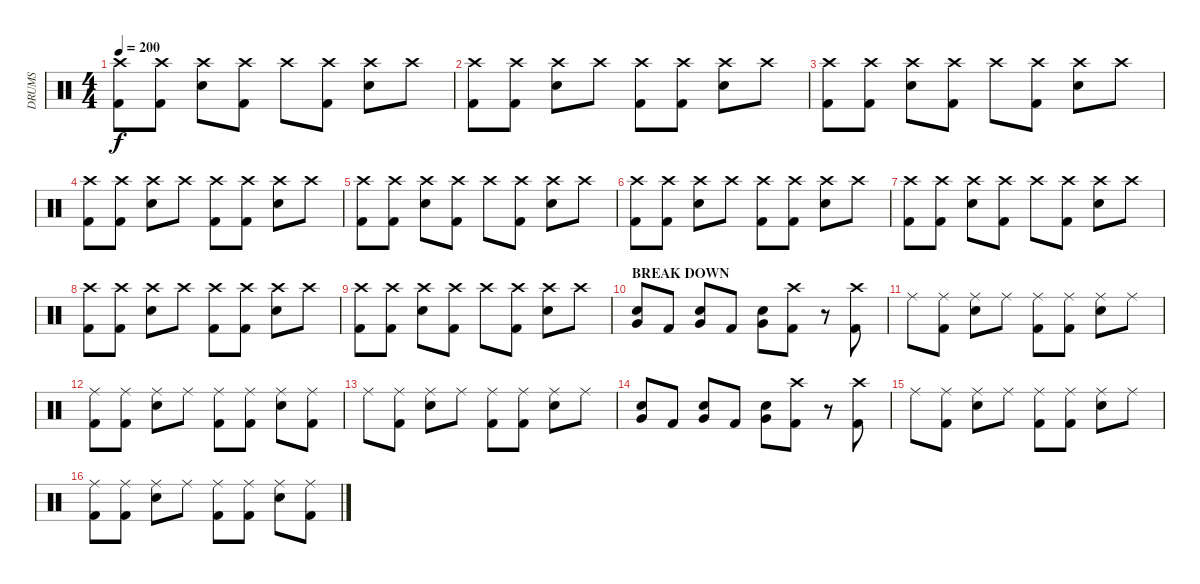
\track ("DRUMS" "DRUMS") {instrument percussion}
\staff {score}
\articulation defaults
\ts (4 4)
\tempo 200
\clef neutral
\ks c
("Crash high (hit)" "Kick (hit) 2").8{dy f} ("Crash high (hit)" "Kick (hit) 2").8 ("Crash high (hit)" "Snare (hit) 2").8 ("Crash high (hit)" "Kick (hit) 2").8 "Crash high (hit)".8 ("Crash high (hit)" "Kick (hit) 2").8 ("Crash high (hit)" "Snare (hit) 2").8 "Crash high (hit)".8 |
("Crash high (hit)" "Kick (hit) 2").8 ("Crash high (hit)" "Kick (hit) 2").8 ("Crash high (hit)" "Snare (hit) 2").8 "Crash high (hit)".8 ("Crash high (hit)" "Kick (hit) 2").8 ("Crash high (hit)" "Kick (hit) 2").8 ("Crash high (hit)" "Snare (hit) 2").8 "Crash high (hit)".8 |
("Crash high (hit)" "Kick (hit) 2").8 ("Crash high (hit)" "Kick (hit) 2").8 ("Crash high (hit)" "Snare (hit) 2").8 ("Crash high (hit)" "Kick (hit) 2").8 "Crash high (hit)".8 ("Crash high (hit)" "Kick (hit) 2").8 ("Crash high (hit)" "Snare (hit) 2").8 "Crash high (hit)".8 |
("Crash high (hit)" "Kick (hit) 2").8 ("Crash high (hit)" "Kick (hit) 2").8 ("Crash high (hit)" "Snare (hit) 2").8 "Crash high (hit)".8 ("Crash high (hit)" "Kick (hit) 2").8 ("Crash high (hit)" "Kick (hit) 2").8 ("Crash high (hit)" "Snare (hit) 2").8 "Crash high (hit)".8 |
("Crash high (hit)" "Kick (hit) 2").8 ("Crash high (hit)" "Kick (hit) 2").8 ("Crash high (hit)" "Snare (hit) 2").8 ("Crash high (hit)" "Kick (hit) 2").8 "Crash high (hit)".8 ("Crash high (hit)" "Kick (hit) 2").8 ("Crash high (hit)" "Snare (hit) 2").8 "Crash high (hit)".8 |
("Crash high (hit)" "Kick (hit) 2").8 ("Crash high (hit)" "Kick (hit) 2").8 ("Crash high (hit)" "Snare (hit) 2").8 "Crash high (hit)".8 ("Crash high (hit)" "Kick (hit) 2").8 ("Crash high (hit)" "Kick (hit) 2").8 ("Crash high (hit)" "Snare (hit) 2").8 "Crash high (hit)".8 |
("Crash high (hit)" "Kick (hit) 2").8 ("Crash high (hit)" "Kick (hit) 2").8 ("Crash high (hit)" "Snare (hit) 2").8 ("Crash high (hit)" "Kick (hit) 2").8 "Crash high (hit)".8 ("Crash high (hit)" "Kick (hit) 2").8 ("Crash high (hit)" "Snare (hit) 2").8 "Crash high (hit)".8 |
("Crash high (hit)" "Kick (hit) 2").8 ("Crash high (hit)" "Kick (hit) 2").8 ("Crash high (hit)" "Snare (hit) 2").8 "Crash high (hit)".8 ("Crash high (hit)" "Kick (hit) 2").8 ("Crash high (hit)" "Kick (hit) 2").8 ("Crash high (hit)" "Snare (hit) 2").8 "Crash high (hit)".8 |
("Crash high (hit)" "Kick (hit) 2").8 ("Crash high (hit)" "Kick (hit) 2").8 ("Crash high (hit)" "Snare (hit) 2").8 ("Crash high (hit)" "Kick (hit) 2").8 "Crash high (hit)".8 ("Crash high (hit)" "Kick (hit) 2").8 ("Crash high (hit)" "Snare (hit) 2").8 "Crash high (hit)".8 |
\section ("" "BREAK DOWN")
("Very Low Tom (hit)" "Snare (hit) 2").8 "Kick (hit) 2".8 ("Very Low Tom (hit)" "Snare (hit) 2").8 "Kick (hit) 2".8 ("Very Low Tom (hit)" "Snare (hit) 2").8 ("Crash high (hit)" "Kick (hit) 2").8 r.8 ("Crash high (hit)" "Kick (hit) 2").8 |
"Ride (middle)".8 ("Ride (middle)" "Kick (hit) 2").8 ("Ride (middle)" "Snare (hit) 2").8 "Ride (middle)".8 ("Ride (middle)" "Kick (hit) 2").8 ("Ride (middle)" "Kick (hit) 2").8 ("Ride (middle)" "Snare (hit) 2").8 "Ride (middle)".8 |
("Ride (middle)" "Kick (hit) 2").8 ("Ride (middle)" "Kick (hit) 2").8 ("Ride (middle)" "Snare (hit) 2").8 "Ride (middle)".8 ("Ride (middle)" "Kick (hit) 2").8 ("Ride (middle)" "Kick (hit) 2").8 ("Ride (middle)" "Snare (hit) 2").8 ("Ride (middle)" "Kick (hit) 2").8 |
"Ride (middle)".8 ("Ride (middle)" "Kick (hit) 2").8 ("Ride (middle)" "Snare (hit) 2").8 "Ride (middle)".8 ("Ride (middle)" "Kick (hit) 2").8 ("Ride (middle)" "Kick (hit) 2").8 ("Ride (middle)" "Snare (hit) 2").8 "Ride (middle)".8 |
("Very Low Tom (hit)" "Snare (hit) 2").8 "Kick (hit) 2".8 ("Very Low Tom (hit)" "Snare (hit) 2").8 "Kick (hit) 2".8 ("Very Low Tom (hit)" "Snare (hit) 2").8 ("Crash high (hit)" "Kick (hit) 2").8 r.8 ("Crash high (hit)" "Kick (hit) 2").8 |
"Ride (middle)".8 ("Ride (middle)" "Kick (hit) 2").8 ("Ride (middle)" "Snare (hit) 2").8 "Ride (middle)".8 ("Ride (middle)" "Kick (hit) 2").8 ("Ride (middle)" "Kick (hit) 2").8 ("Ride (middle)" "Snare (hit) 2").8 "Ride (middle)".8 |
("Ride (middle)" "Kick (hit) 2").8 ("Ride (middle)" "Kick (hit) 2").8 ("Ride (middle)" "Snare (hit) 2").8 "Ride (middle)".8 ("Ride (middle)" "Kick (hit) 2").8 ("Ride (middle)" "Kick (hit) 2").8 ("Ride (middle)" "Snare (hit) 2").8 ("Ride (middle)" "Kick (hit) 2").8
